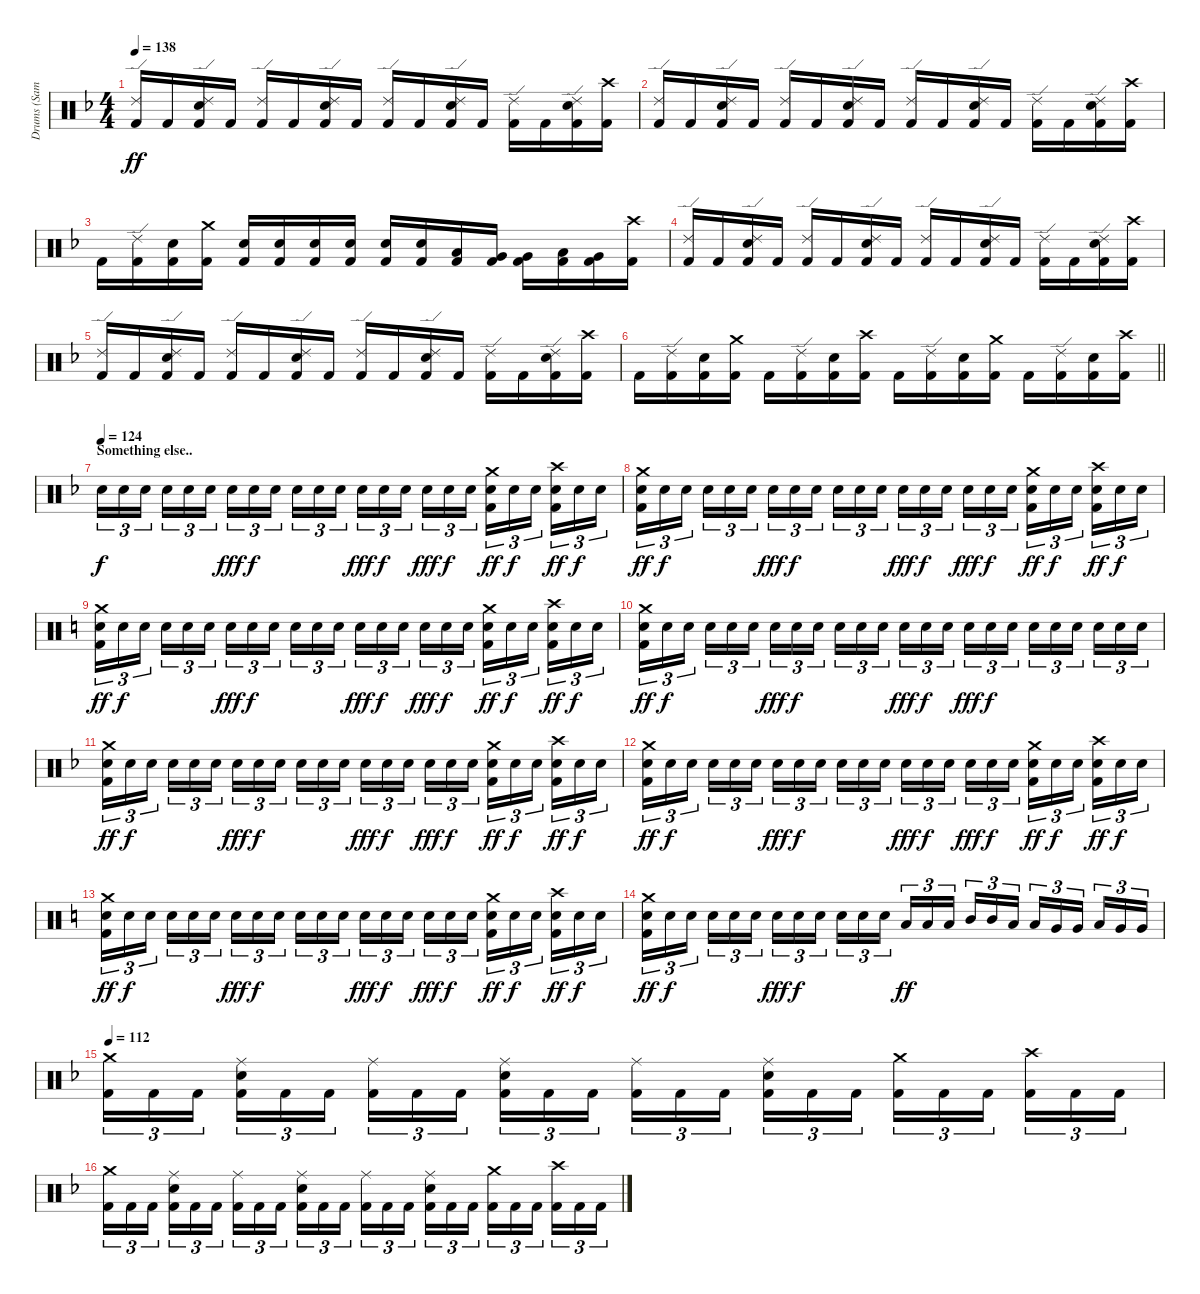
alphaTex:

\track ("Drums (Samuelson)" "Drums (Sam") {instrument percussion}
\staff {score}
\articulation defaults
\ts (4 4)
\tempo 138
\clef neutral
\ks f
("Ride (edge) 2" "Kick (hit) 2").16{dy ff} "Kick (hit) 2".16 ("Ride (edge) 2" "Snare (hit) 2" "Kick (hit) 2").16 "Kick (hit) 2".16 ("Ride (edge) 2" "Kick (hit) 2").16 "Kick (hit) 2".16 ("Ride (edge) 2" "Snare (hit) 2" "Kick (hit) 2").16 "Kick (hit) 2".16 ("Ride (edge) 2" "Kick (hit) 2").16 "Kick (hit) 2".16 ("Ride (edge) 2" "Snare (hit) 2" "Kick (hit) 2").16 "Kick (hit) 2".16 ("Ride (edge) 2" "Kick (hit) 2").16 "Kick (hit) 2".16 ("Ride (edge) 2" "Snare (hit) 2" "Kick (hit) 2").16 ("Crash high (hit)" "Kick (hit) 2").16 |
("Ride (edge) 2" "Kick (hit) 2").16 "Kick (hit) 2".16 ("Ride (edge) 2" "Snare (hit) 2" "Kick (hit) 2").16 "Kick (hit) 2".16 ("Ride (edge) 2" "Kick (hit) 2").16 "Kick (hit) 2".16 ("Ride (edge) 2" "Snare (hit) 2" "Kick (hit) 2").16 "Kick (hit) 2".16 ("Ride (edge) 2" "Kick (hit) 2").16 "Kick (hit) 2".16 ("Ride (edge) 2" "Snare (hit) 2" "Kick (hit) 2").16 "Kick (hit) 2".16 ("Ride (edge) 2" "Kick (hit) 2").16 "Kick (hit) 2".16 ("Ride (edge) 2" "Snare (hit) 2" "Kick (hit) 2").16 ("Crash high (hit)" "Kick (hit) 2").16 |
"Kick (hit) 2".16 ("Ride (edge) 2" "Kick (hit) 2").16 ("Snare (hit) 2" "Kick (hit) 2").16 ("Crash medium (hit)" "Kick (hit) 2").16 ("Snare (hit) 2" "Kick (hit) 2").16 ("Snare (hit) 2" "Kick (hit) 2").16 ("Snare (hit) 2" "Kick (hit) 2").16 ("Snare (hit) 2" "Kick (hit) 2").16 ("Snare (hit) 2" "Kick (hit) 2").16 ("Snare (hit) 2" "Kick (hit) 2").16 ("Low Tom (hit)" "Kick (hit) 2").16 ("Very Low Tom (hit)" "Kick (hit) 2").16 ("Very Low Tom (hit)" "Kick (hit) 2").16 ("Low Tom (hit)" "Kick (hit) 2").16 ("Very Low Tom (hit)" "Kick (hit) 2").16 ("Crash high (hit)" "Kick (hit) 2").16 |
("Ride (edge) 2" "Kick (hit) 2").16 "Kick (hit) 2".16 ("Ride (edge) 2" "Snare (hit) 2" "Kick (hit) 2").16 "Kick (hit) 2".16 ("Ride (edge) 2" "Kick (hit) 2").16 "Kick (hit) 2".16 ("Ride (edge) 2" "Snare (hit) 2" "Kick (hit) 2").16 "Kick (hit) 2".16 ("Ride (edge) 2" "Kick (hit) 2").16 "Kick (hit) 2".16 ("Ride (edge) 2" "Snare (hit) 2" "Kick (hit) 2").16 "Kick (hit) 2".16 ("Ride (edge) 2" "Kick (hit) 2").16 "Kick (hit) 2".16 ("Ride (edge) 2" "Snare (hit) 2" "Kick (hit) 2").16 ("Crash high (hit)" "Kick (hit) 2").16 |
("Ride (edge) 2" "Kick (hit) 2").16 "Kick (hit) 2".16 ("Ride (edge) 2" "Snare (hit) 2" "Kick (hit) 2").16 "Kick (hit) 2".16 ("Ride (edge) 2" "Kick (hit) 2").16 "Kick (hit) 2".16 ("Ride (edge) 2" "Snare (hit) 2" "Kick (hit) 2").16 "Kick (hit) 2".16 ("Ride (edge) 2" "Kick (hit) 2").16 "Kick (hit) 2".16 ("Ride (edge) 2" "Snare (hit) 2" "Kick (hit) 2").16 "Kick (hit) 2".16 ("Ride (edge) 2" "Kick (hit) 2").16 "Kick (hit) 2".16 ("Ride (edge) 2" "Snare (hit) 2" "Kick (hit) 2").16 ("Crash high (hit)" "Kick (hit) 2").16 |
\barLineRight lightlight "Kick (hit) 2".16
("Ride (edge) 2" "Kick (hit) 2").16 ("Snare (hit) 2" "Kick (hit) 2").16 ("Crash medium (hit)" "Kick (hit) 2").16 "Kick (hit) 2".16 ("Ride (edge) 2" "Kick (hit) 2").16 ("Snare (hit) 2" "Kick (hit) 2").16 ("Crash high (hit)" "Kick (hit) 2").16 "Kick (hit) 2".16 ("Ride (edge) 2" "Kick (hit) 2").16 ("Snare (hit) 2" "Kick (hit) 2").16 ("Crash medium (hit)" "Kick (hit) 2").16 "Kick (hit) 2".16 ("Ride (edge) 2" "Kick (hit) 2").16 ("Snare (hit) 2" "Kick (hit) 2").16 ("Crash high (hit)" "Kick (hit) 2").16 |
\section ("" "Something else..")
\tempo (124)
"Snare (hit) 2".16{tu (3 2) dy f} "Snare (hit) 2".16{tu (3 2)} "Snare (hit) 2".16{tu (3 2) beam splitsecondary} "Snare (hit) 2".16{tu (3 2)} "Snare (hit) 2".16{tu (3 2)} "Snare (hit) 2".16{tu (3 2)} "Snare (hit) 2".16{tu (3 2) dy fff} "Snare (hit) 2".16{tu (3 2) dy f} "Snare (hit) 2".16{tu (3 2) beam splitsecondary} "Snare (hit) 2".16{tu (3 2)} "Snare (hit) 2".16{tu (3 2)} "Snare (hit) 2".16{tu (3 2)} "Snare (hit) 2".16{tu (3 2) dy fff} "Snare (hit) 2".16{tu (3 2) dy f} "Snare (hit) 2".16{tu (3 2) beam splitsecondary} "Snare (hit) 2".16{tu (3 2) dy fff} "Snare (hit) 2".16{tu (3 2) dy f} "Snare (hit) 2".16{tu (3 2)} ("Crash medium (hit)" "Snare (hit) 2" "Kick (hit) 2").16{tu (3 2) dy ff} "Snare (hit) 2".16{tu (3 2) dy f} "Snare (hit) 2".16{tu (3 2) beam splitsecondary} ("Crash high (hit)" "Snare (hit) 2" "Kick (hit) 2").16{tu (3 2) dy ff} "Snare (hit) 2".16{tu (3 2) dy f} "Snare (hit) 2".16{tu (3 2)} |
("Crash medium (hit)" "Snare (hit) 2" "Kick (hit) 2").16{tu (3 2) dy ff} "Snare (hit) 2".16{tu (3 2) dy f} "Snare (hit) 2".16{tu (3 2) beam splitsecondary} "Snare (hit) 2".16{tu (3 2)} "Snare (hit) 2".16{tu (3 2)} "Snare (hit) 2".16{tu (3 2)} "Snare (hit) 2".16{tu (3 2) dy fff} "Snare (hit) 2".16{tu (3 2) dy f} "Snare (hit) 2".16{tu (3 2) beam splitsecondary} "Snare (hit) 2".16{tu (3 2)} "Snare (hit) 2".16{tu (3 2)} "Snare (hit) 2".16{tu (3 2)} "Snare (hit) 2".16{tu (3 2) dy fff} "Snare (hit) 2".16{tu (3 2) dy f} "Snare (hit) 2".16{tu (3 2) beam splitsecondary} "Snare (hit) 2".16{tu (3 2) dy fff} "Snare (hit) 2".16{tu (3 2) dy f} "Snare (hit) 2".16{tu (3 2)} ("Crash medium (hit)" "Snare (hit) 2" "Kick (hit) 2").16{tu (3 2) dy ff} "Snare (hit) 2".16{tu (3 2) dy f} "Snare (hit) 2".16{tu (3 2) beam splitsecondary} ("Crash high (hit)" "Snare (hit) 2" "Kick (hit) 2").16{tu (3 2) dy ff} "Snare (hit) 2".16{tu (3 2) dy f} "Snare (hit) 2".16{tu (3 2)} |
\ks c
("Crash medium (hit)" "Snare (hit) 2" "Kick (hit) 2").16{tu (3 2) dy ff} "Snare (hit) 2".16{tu (3 2) dy f} "Snare (hit) 2".16{tu (3 2) beam splitsecondary} "Snare (hit) 2".16{tu (3 2)} "Snare (hit) 2".16{tu (3 2)} "Snare (hit) 2".16{tu (3 2)} "Snare (hit) 2".16{tu (3 2) dy fff} "Snare (hit) 2".16{tu (3 2) dy f} "Snare (hit) 2".16{tu (3 2) beam splitsecondary} "Snare (hit) 2".16{tu (3 2)} "Snare (hit) 2".16{tu (3 2)} "Snare (hit) 2".16{tu (3 2)} "Snare (hit) 2".16{tu (3 2) dy fff} "Snare (hit) 2".16{tu (3 2) dy f} "Snare (hit) 2".16{tu (3 2) beam splitsecondary} "Snare (hit) 2".16{tu (3 2) dy fff} "Snare (hit) 2".16{tu (3 2) dy f} "Snare (hit) 2".16{tu (3 2)} ("Crash medium (hit)" "Snare (hit) 2" "Kick (hit) 2").16{tu (3 2) dy ff} "Snare (hit) 2".16{tu (3 2) dy f} "Snare (hit) 2".16{tu (3 2) beam splitsecondary} ("Crash high (hit)" "Snare (hit) 2" "Kick (hit) 2").16{tu (3 2) dy ff} "Snare (hit) 2".16{tu (3 2) dy f} "Snare (hit) 2".16{tu (3 2)} |
("Crash medium (hit)" "Snare (hit) 2" "Kick (hit) 2").16{tu (3 2) dy ff} "Snare (hit) 2".16{tu (3 2) dy f} "Snare (hit) 2".16{tu (3 2) beam splitsecondary} "Snare (hit) 2".16{tu (3 2)} "Snare (hit) 2".16{tu (3 2)} "Snare (hit) 2".16{tu (3 2)} "Snare (hit) 2".16{tu (3 2) dy fff} "Snare (hit) 2".16{tu (3 2) dy f} "Snare (hit) 2".16{tu (3 2) beam splitsecondary} "Snare (hit) 2".16{tu (3 2)} "Snare (hit) 2".16{tu (3 2)} "Snare (hit) 2".16{tu (3 2)} "Snare (hit) 2".16{tu (3 2) dy fff} "Snare (hit) 2".16{tu (3 2) dy f} "Snare (hit) 2".16{tu (3 2) beam splitsecondary} "Snare (hit) 2".16{tu (3 2) dy fff} "Snare (hit) 2".16{tu (3 2) dy f} "Snare (hit) 2".16{tu (3 2)} "Snare (hit) 2".16{tu (3 2)} "Snare (hit) 2".16{tu (3 2)} "Snare (hit) 2".16{tu (3 2) beam splitsecondary} "Snare (hit) 2".16{tu (3 2)} "Snare (hit) 2".16{tu (3 2)} "Snare (hit) 2".16{tu (3 2)} |
\ks f
("Crash medium (hit)" "Snare (hit) 2" "Kick (hit) 2").16{tu (3 2) dy ff} "Snare (hit) 2".16{tu (3 2) dy f} "Snare (hit) 2".16{tu (3 2) beam splitsecondary} "Snare (hit) 2".16{tu (3 2)} "Snare (hit) 2".16{tu (3 2)} "Snare (hit) 2".16{tu (3 2)} "Snare (hit) 2".16{tu (3 2) dy fff} "Snare (hit) 2".16{tu (3 2) dy f} "Snare (hit) 2".16{tu (3 2) beam splitsecondary} "Snare (hit) 2".16{tu (3 2)} "Snare (hit) 2".16{tu (3 2)} "Snare (hit) 2".16{tu (3 2)} "Snare (hit) 2".16{tu (3 2) dy fff} "Snare (hit) 2".16{tu (3 2) dy f} "Snare (hit) 2".16{tu (3 2) beam splitsecondary} "Snare (hit) 2".16{tu (3 2) dy fff} "Snare (hit) 2".16{tu (3 2) dy f} "Snare (hit) 2".16{tu (3 2)} ("Crash medium (hit)" "Snare (hit) 2" "Kick (hit) 2").16{tu (3 2) dy ff} "Snare (hit) 2".16{tu (3 2) dy f} "Snare (hit) 2".16{tu (3 2) beam splitsecondary} ("Crash high (hit)" "Snare (hit) 2" "Kick (hit) 2").16{tu (3 2) dy ff} "Snare (hit) 2".16{tu (3 2) dy f} "Snare (hit) 2".16{tu (3 2)} |
("Crash medium (hit)" "Snare (hit) 2" "Kick (hit) 2").16{tu (3 2) dy ff} "Snare (hit) 2".16{tu (3 2) dy f} "Snare (hit) 2".16{tu (3 2) beam splitsecondary} "Snare (hit) 2".16{tu (3 2)} "Snare (hit) 2".16{tu (3 2)} "Snare (hit) 2".16{tu (3 2)} "Snare (hit) 2".16{tu (3 2) dy fff} "Snare (hit) 2".16{tu (3 2) dy f} "Snare (hit) 2".16{tu (3 2) beam splitsecondary} "Snare (hit) 2".16{tu (3 2)} "Snare (hit) 2".16{tu (3 2)} "Snare (hit) 2".16{tu (3 2)} "Snare (hit) 2".16{tu (3 2) dy fff} "Snare (hit) 2".16{tu (3 2) dy f} "Snare (hit) 2".16{tu (3 2) beam splitsecondary} "Snare (hit) 2".16{tu (3 2) dy fff} "Snare (hit) 2".16{tu (3 2) dy f} "Snare (hit) 2".16{tu (3 2)} ("Crash medium (hit)" "Snare (hit) 2" "Kick (hit) 2").16{tu (3 2) dy ff} "Snare (hit) 2".16{tu (3 2) dy f} "Snare (hit) 2".16{tu (3 2) beam splitsecondary} ("Crash high (hit)" "Snare (hit) 2" "Kick (hit) 2").16{tu (3 2) dy ff} "Snare (hit) 2".16{tu (3 2) dy f} "Snare (hit) 2".16{tu (3 2)} |
\ks c
("Crash medium (hit)" "Snare (hit) 2" "Kick (hit) 2").16{tu (3 2) dy ff} "Snare (hit) 2".16{tu (3 2) dy f} "Snare (hit) 2".16{tu (3 2) beam splitsecondary} "Snare (hit) 2".16{tu (3 2)} "Snare (hit) 2".16{tu (3 2)} "Snare (hit) 2".16{tu (3 2)} "Snare (hit) 2".16{tu (3 2) dy fff} "Snare (hit) 2".16{tu (3 2) dy f} "Snare (hit) 2".16{tu (3 2) beam splitsecondary} "Snare (hit) 2".16{tu (3 2)} "Snare (hit) 2".16{tu (3 2)} "Snare (hit) 2".16{tu (3 2)} "Snare (hit) 2".16{tu (3 2) dy fff} "Snare (hit) 2".16{tu (3 2) dy f} "Snare (hit) 2".16{tu (3 2) beam splitsecondary} "Snare (hit) 2".16{tu (3 2) dy fff} "Snare (hit) 2".16{tu (3 2) dy f} "Snare (hit) 2".16{tu (3 2)} ("Crash medium (hit)" "Snare (hit) 2" "Kick (hit) 2").16{tu (3 2) dy ff} "Snare (hit) 2".16{tu (3 2) dy f} "Snare (hit) 2".16{tu (3 2) beam splitsecondary} ("Crash high (hit)" "Snare (hit) 2" "Kick (hit) 2").16{tu (3 2) dy ff} "Snare (hit) 2".16{tu (3 2) dy f} "Snare (hit) 2".16{tu (3 2)} |
("Crash medium (hit)" "Snare (hit) 2" "Kick (hit) 2").16{tu (3 2) dy ff} "Snare (hit) 2".16{tu (3 2) dy f} "Snare (hit) 2".16{tu (3 2) beam splitsecondary} "Snare (hit) 2".16{tu (3 2)} "Snare (hit) 2".16{tu (3 2)} "Snare (hit) 2".16{tu (3 2)} "Snare (hit) 2".16{tu (3 2) dy fff} "Snare (hit) 2".16{tu (3 2) dy f} "Snare (hit) 2".16{tu (3 2) beam splitsecondary} "Snare (hit) 2".16{tu (3 2)} "Snare (hit) 2".16{tu (3 2)} "Snare (hit) 2".16{tu (3 2)} "Low Tom (hit)".16{tu (3 2) dy ff} "Low Tom (hit)".16{tu (3 2)} "Low Tom (hit)".16{tu (3 2) beam splitsecondary} "Mid Tom (hit)".16{tu (3 2)} "Mid Tom (hit)".16{tu (3 2)} "Low Tom (hit)".16{tu (3 2)} "Low Tom (hit)".16{tu (3 2)} "Very Low Tom (hit)".16{tu (3 2)} "Very Low Tom (hit)".16{tu (3 2) beam splitsecondary} "Low Tom (hit)".16{tu (3 2)} "Very Low Tom (hit)".16{tu (3 2)} "Very Low Tom (hit)".16{tu (3 2)} |
\tempo 112
\ks f
("Crash medium (hit)" "Kick (hit) 2").16{tu (3 2)} "Kick (hit) 2".16{tu (3 2)} "Kick (hit) 2".16{tu (3 2) beam splitsecondary} ("Ride (middle)" "Snare (hit) 2" "Kick (hit) 2").16{tu (3 2)} "Kick (hit) 2".16{tu (3 2)} "Kick (hit) 2".16{tu (3 2)} ("Ride (middle)" "Kick (hit) 2").16{tu (3 2)} "Kick (hit) 2".16{tu (3 2)} "Kick (hit) 2".16{tu (3 2) beam splitsecondary} ("Ride (middle)" "Snare (hit) 2" "Kick (hit) 2").16{tu (3 2)} "Kick (hit) 2".16{tu (3 2)} "Kick (hit) 2".16{tu (3 2)} ("Ride (middle)" "Kick (hit) 2").16{tu (3 2)} "Kick (hit) 2".16{tu (3 2)} "Kick (hit) 2".16{tu (3 2) beam splitsecondary} ("Ride (middle)" "Snare (hit) 2" "Kick (hit) 2").16{tu (3 2)} "Kick (hit) 2".16{tu (3 2)} "Kick (hit) 2".16{tu (3 2)} ("Crash medium (hit)" "Kick (hit) 2").16{tu (3 2)} "Kick (hit) 2".16{tu (3 2)} "Kick (hit) 2".16{tu (3 2) beam splitsecondary} ("Crash high (hit)" "Kick (hit) 2").16{tu (3 2)} "Kick (hit) 2".16{tu (3 2)} "Kick (hit) 2".16{tu (3 2)} |
("Crash medium (hit)" "Kick (hit) 2").16{tu (3 2)} "Kick (hit) 2".16{tu (3 2)} "Kick (hit) 2".16{tu (3 2) beam splitsecondary} ("Ride (middle)" "Snare (hit) 2" "Kick (hit) 2").16{tu (3 2)} "Kick (hit) 2".16{tu (3 2)} "Kick (hit) 2".16{tu (3 2)} ("Ride (middle)" "Kick (hit) 2").16{tu (3 2)} "Kick (hit) 2".16{tu (3 2)} "Kick (hit) 2".16{tu (3 2) beam splitsecondary} ("Ride (middle)" "Snare (hit) 2" "Kick (hit) 2").16{tu (3 2)} "Kick (hit) 2".16{tu (3 2)} "Kick (hit) 2".16{tu (3 2)} ("Ride (middle)" "Kick (hit) 2").16{tu (3 2)} "Kick (hit) 2".16{tu (3 2)} "Kick (hit) 2".16{tu (3 2) beam splitsecondary} ("Ride (middle)" "Snare (hit) 2" "Kick (hit) 2").16{tu (3 2)} "Kick (hit) 2".16{tu (3 2)} "Kick (hit) 2".16{tu (3 2)} ("Crash medium (hit)" "Kick (hit) 2").16{tu (3 2)} "Kick (hit) 2".16{tu (3 2)} "Kick (hit) 2".16{tu (3 2) beam splitsecondary} ("Crash high (hit)" "Kick (hit) 2").16{tu (3 2)} "Kick (hit) 2".16{tu (3 2)} "Kick (hit) 2".16{tu (3 2)}
